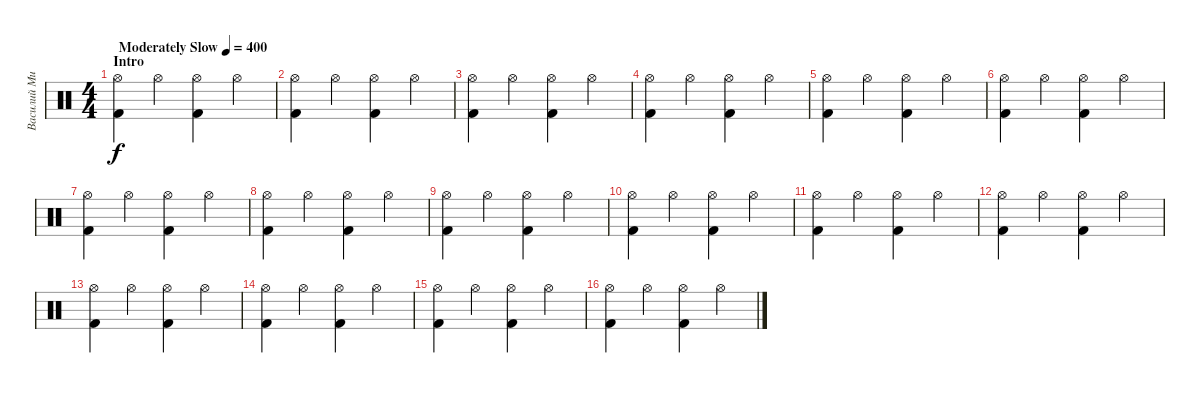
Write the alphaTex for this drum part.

\track ("Василий Михалыч-ударные" "Василий Ми") {instrument percussion}
\staff {score}
\articulation defaults
\ts (4 4)
\section ("" "Intro")
\tempo (400 "Moderately Slow")
\clef neutral
\ks c
("Kick (hit) 2" "Hi-Hat (open)").4{dy f} "Hi-Hat (open)".4 ("Kick (hit) 2" "Hi-Hat (open)").4 "Hi-Hat (open)".4 |
("Kick (hit) 2" "Hi-Hat (open)").4 "Hi-Hat (open)".4 ("Kick (hit) 2" "Hi-Hat (open)").4 "Hi-Hat (open)".4 |
("Kick (hit) 2" "Hi-Hat (open)").4 "Hi-Hat (open)".4 ("Kick (hit) 2" "Hi-Hat (open)").4 "Hi-Hat (open)".4 |
("Kick (hit) 2" "Hi-Hat (open)").4 "Hi-Hat (open)".4 ("Kick (hit) 2" "Hi-Hat (open)").4 "Hi-Hat (open)".4 |
("Kick (hit) 2" "Hi-Hat (open)").4 "Hi-Hat (open)".4 ("Kick (hit) 2" "Hi-Hat (open)").4 "Hi-Hat (open)".4 |
("Kick (hit) 2" "Hi-Hat (open)").4 "Hi-Hat (open)".4 ("Kick (hit) 2" "Hi-Hat (open)").4 "Hi-Hat (open)".4 |
("Kick (hit) 2" "Hi-Hat (open)").4 "Hi-Hat (open)".4 ("Kick (hit) 2" "Hi-Hat (open)").4 "Hi-Hat (open)".4 |
("Kick (hit) 2" "Hi-Hat (open)").4 "Hi-Hat (open)".4 ("Kick (hit) 2" "Hi-Hat (open)").4 "Hi-Hat (open)".4 |
("Kick (hit) 2" "Hi-Hat (open)").4 "Hi-Hat (open)".4 ("Kick (hit) 2" "Hi-Hat (open)").4 "Hi-Hat (open)".4 |
("Kick (hit) 2" "Hi-Hat (open)").4 "Hi-Hat (open)".4 ("Kick (hit) 2" "Hi-Hat (open)").4 "Hi-Hat (open)".4 |
("Kick (hit) 2" "Hi-Hat (open)").4 "Hi-Hat (open)".4 ("Kick (hit) 2" "Hi-Hat (open)").4 "Hi-Hat (open)".4 |
("Kick (hit) 2" "Hi-Hat (open)").4 "Hi-Hat (open)".4 ("Kick (hit) 2" "Hi-Hat (open)").4 "Hi-Hat (open)".4 |
("Kick (hit) 2" "Hi-Hat (open)").4 "Hi-Hat (open)".4 ("Kick (hit) 2" "Hi-Hat (open)").4 "Hi-Hat (open)".4 |
("Kick (hit) 2" "Hi-Hat (open)").4 "Hi-Hat (open)".4 ("Kick (hit) 2" "Hi-Hat (open)").4 "Hi-Hat (open)".4 |
("Kick (hit) 2" "Hi-Hat (open)").4 "Hi-Hat (open)".4 ("Kick (hit) 2" "Hi-Hat (open)").4 "Hi-Hat (open)".4 |
("Kick (hit) 2" "Hi-Hat (open)").4 "Hi-Hat (open)".4 ("Kick (hit) 2" "Hi-Hat (open)").4 "Hi-Hat (open)".4
